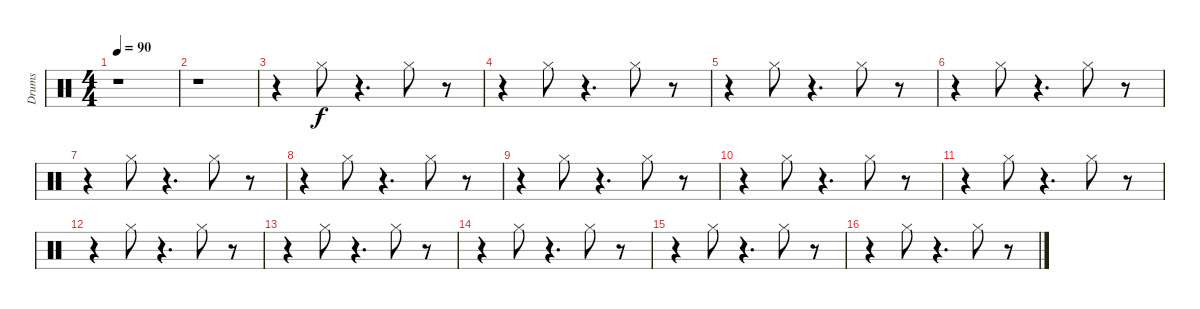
\track ("Drums" "Drums") {instrument percussion}
\staff {score}
\articulation defaults
\ts (4 4)
\tempo 90
\clef neutral
\ks c
r.1{dy f} |
r.1 |
r.4 "Hi-Hat (closed)".8 r.4{d} "Hi-Hat (closed)".8 r.8 |
r.4 "Hi-Hat (closed)".8 r.4{d} "Hi-Hat (closed)".8 r.8 |
r.4 "Hi-Hat (closed)".8 r.4{d} "Hi-Hat (closed)".8 r.8 |
r.4 "Hi-Hat (closed)".8 r.4{d} "Hi-Hat (closed)".8 r.8 |
r.4 "Hi-Hat (closed)".8 r.4{d} "Hi-Hat (closed)".8 r.8 |
r.4 "Hi-Hat (closed)".8 r.4{d} "Hi-Hat (closed)".8 r.8 |
r.4 "Hi-Hat (closed)".8 r.4{d} "Hi-Hat (closed)".8 r.8 |
r.4 "Hi-Hat (closed)".8 r.4{d} "Hi-Hat (closed)".8 r.8 |
r.4 "Hi-Hat (closed)".8 r.4{d} "Hi-Hat (closed)".8 r.8 |
r.4 "Hi-Hat (closed)".8 r.4{d} "Hi-Hat (closed)".8 r.8 |
r.4 "Hi-Hat (closed)".8 r.4{d} "Hi-Hat (closed)".8 r.8 |
r.4 "Hi-Hat (closed)".8 r.4{d} "Hi-Hat (closed)".8 r.8 |
r.4 "Hi-Hat (closed)".8 r.4{d} "Hi-Hat (closed)".8 r.8 |
r.4 "Hi-Hat (closed)".8 r.4{d} "Hi-Hat (closed)".8 r.8
